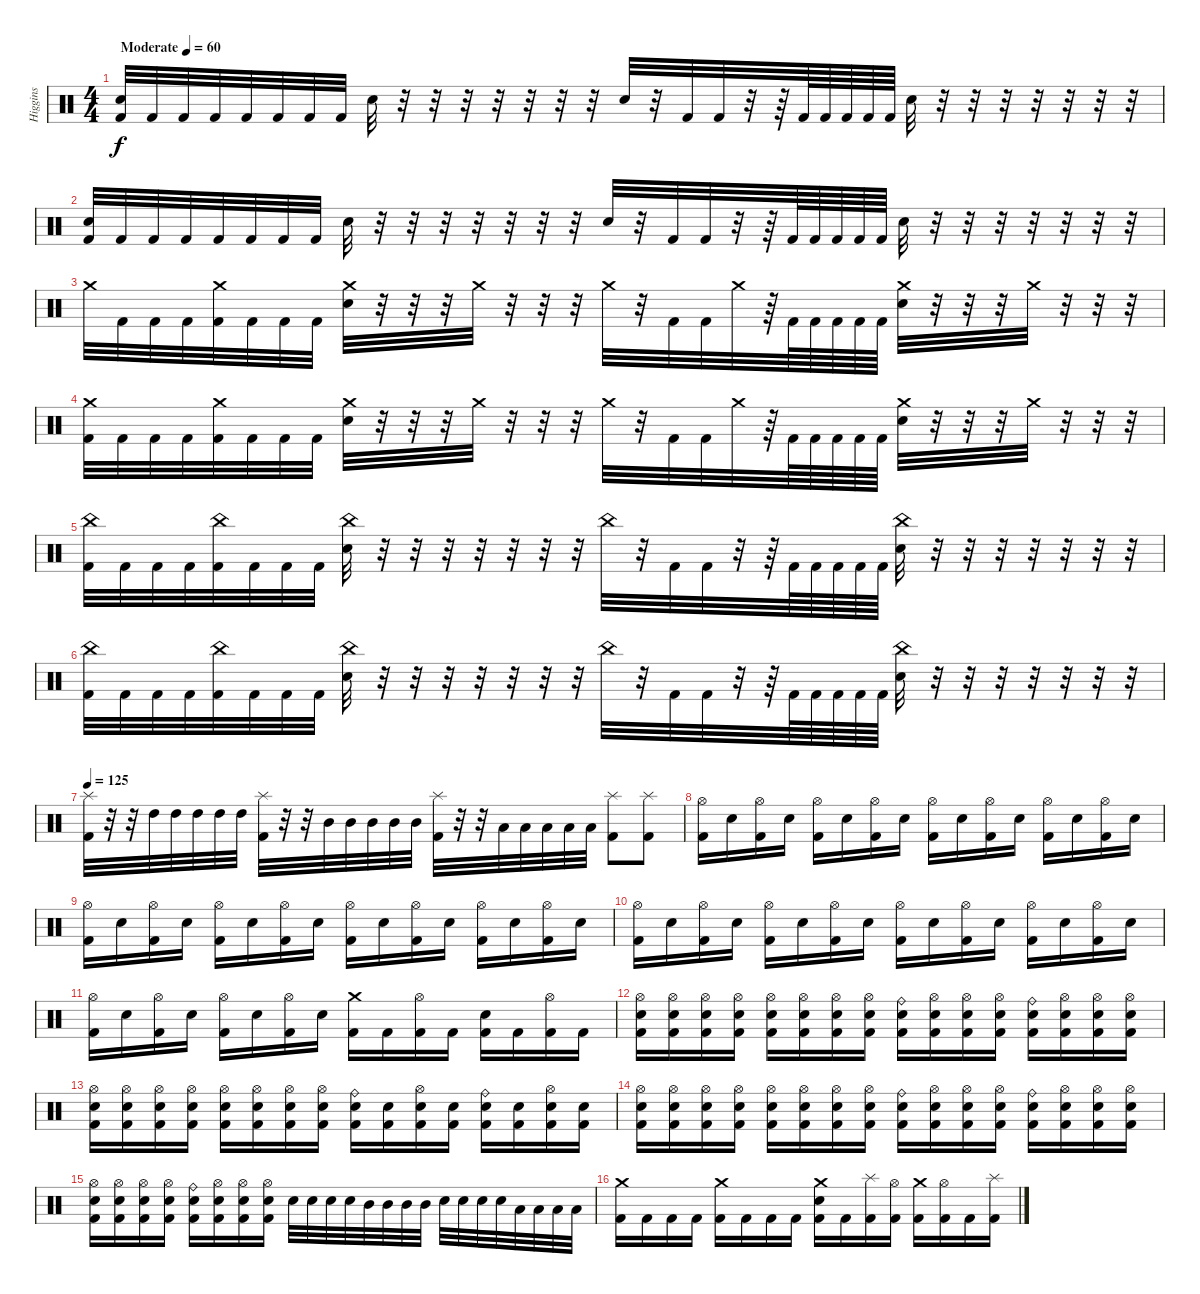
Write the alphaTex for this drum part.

\track ("Higgins" "Higgins") {instrument percussion}
\staff {score}
\articulation defaults
\ts (4 4)
\tempo (60 "Moderate")
\clef neutral
\ks c
("Snare (hit) 2" "Kick (hit) 2").32{dy f} "Kick (hit) 2".32 "Kick (hit) 2".32 "Kick (hit) 2".32 "Kick (hit) 2".32 "Kick (hit) 2".32 "Kick (hit) 2".32 "Kick (hit) 2".32 "Snare (hit) 2".32 r.32 r.32 r.32 r.32 r.32 r.32 r.32 "Snare (hit) 2".32 r.32 "Kick (hit) 2".32 "Kick (hit) 2".32 r.32 r.64 "Kick (hit) 2".64 "Kick (hit) 2".64 "Kick (hit) 2".64 "Kick (hit) 2".64 "Kick (hit) 2".64 "Snare (hit) 2".32 r.32 r.32 r.32 r.32 r.32 r.32 r.32 |
("Snare (hit) 2" "Kick (hit) 2").32 "Kick (hit) 2".32 "Kick (hit) 2".32 "Kick (hit) 2".32 "Kick (hit) 2".32 "Kick (hit) 2".32 "Kick (hit) 2".32 "Kick (hit) 2".32 "Snare (hit) 2".32 r.32 r.32 r.32 r.32 r.32 r.32 r.32 "Snare (hit) 2".32 r.32 "Kick (hit) 2".32 "Kick (hit) 2".32 r.32 r.64 "Kick (hit) 2".64 "Kick (hit) 2".64 "Kick (hit) 2".64 "Kick (hit) 2".64 "Kick (hit) 2".64 "Snare (hit) 2".32 r.32 r.32 r.32 r.32 r.32 r.32 r.32 |
"Crash medium (hit)".32 "Kick (hit) 2".32 "Kick (hit) 2".32 "Kick (hit) 2".32 ("Crash medium (hit)" "Kick (hit) 2").32 "Kick (hit) 2".32 "Kick (hit) 2".32 "Kick (hit) 2".32 ("Crash medium (hit)" "Snare (hit) 2").32 r.32 r.32 r.32 "Crash medium (hit)".32 r.32 r.32 r.32 "Crash medium (hit)".32 r.32 "Kick (hit) 2".32 "Kick (hit) 2".32 "Crash medium (hit)".32 r.64 "Kick (hit) 2".64 "Kick (hit) 2".64 "Kick (hit) 2".64 "Kick (hit) 2".64 "Kick (hit) 2".64 ("Crash medium (hit)" "Snare (hit) 2").32 r.32 r.32 r.32 "Crash medium (hit)".32 r.32 r.32 r.32 |
("Crash medium (hit)" "Kick (hit) 2").32 "Kick (hit) 2".32 "Kick (hit) 2".32 "Kick (hit) 2".32 ("Crash medium (hit)" "Kick (hit) 2").32 "Kick (hit) 2".32 "Kick (hit) 2".32 "Kick (hit) 2".32 ("Crash medium (hit)" "Snare (hit) 2").32 r.32 r.32 r.32 "Crash medium (hit)".32 r.32 r.32 r.32 "Crash medium (hit)".32 r.32 "Kick (hit) 2".32 "Kick (hit) 2".32 "Crash medium (hit)".32 r.64 "Kick (hit) 2".64 "Kick (hit) 2".64 "Kick (hit) 2".64 "Kick (hit) 2".64 "Kick (hit) 2".64 ("Crash medium (hit)" "Snare (hit) 2").32 r.32 r.32 r.32 "Crash medium (hit)".32 r.32 r.32 r.32 |
("China (hit)" "Kick (hit) 2").32 "Kick (hit) 2".32 "Kick (hit) 2".32 "Kick (hit) 2".32 ("China (hit)" "Kick (hit) 2").32 "Kick (hit) 2".32 "Kick (hit) 2".32 "Kick (hit) 2".32 ("China (hit)" "Snare (hit) 2").32 r.32 r.32 r.32 r.32 r.32 r.32 r.32 "China (hit)".32 r.32 "Kick (hit) 2".32 "Kick (hit) 2".32 r.32 r.64 "Kick (hit) 2".64 "Kick (hit) 2".64 "Kick (hit) 2".64 "Kick (hit) 2".64 "Kick (hit) 2".64 ("China (hit)" "Snare (hit) 2").32 r.32 r.32 r.32 r.32 r.32 r.32 r.32 |
("China (hit)" "Kick (hit) 2").32 "Kick (hit) 2".32 "Kick (hit) 2".32 "Kick (hit) 2".32 ("China (hit)" "Kick (hit) 2").32 "Kick (hit) 2".32 "Kick (hit) 2".32 "Kick (hit) 2".32 ("China (hit)" "Snare (hit) 2").32 r.32 r.32 r.32 r.32 r.32 r.32 r.32 "China (hit)".32 r.32 "Kick (hit) 2".32 "Kick (hit) 2".32 r.32 r.64 "Kick (hit) 2".64 "Kick (hit) 2".64 "Kick (hit) 2".64 "Kick (hit) 2".64 "Kick (hit) 2".64 ("China (hit)" "Snare (hit) 2").32 r.32 r.32 r.32 r.32 r.32 r.32 r.32 |
\tempo 125
("Splash (hit)" "Kick (hit) 2").32 r.32 r.32 "High Tom (hit)".32 "High Tom (hit)".32 "High Tom (hit)".32 "High Tom (hit)".32 "High Tom (hit)".32 ("Splash (hit)" "Kick (hit) 2").32 r.32 r.32 "Mid Tom (hit)".32 "Mid Tom (hit)".32 "Mid Tom (hit)".32 "Mid Tom (hit)".32 "Mid Tom (hit)".32 ("Splash (hit)" "Kick (hit) 2").32 r.32 r.32 "Low Tom (hit)".32 "Low Tom (hit)".32 "Low Tom (hit)".32 "Low Tom (hit)".32 "Low Tom (hit)".32 ("Splash (hit)" "Kick (hit) 2").8 ("Splash (hit)" "Kick (hit) 2").8 |
("Hi-Hat (open)" "Kick (hit) 2").16 "Snare (hit) 2".16 ("Hi-Hat (open)" "Kick (hit) 2").16 "Snare (hit) 2".16 ("Hi-Hat (open)" "Kick (hit) 2").16 "Snare (hit) 2".16 ("Hi-Hat (open)" "Kick (hit) 2").16 "Snare (hit) 2".16 ("Hi-Hat (open)" "Kick (hit) 2").16 "Snare (hit) 2".16 ("Hi-Hat (open)" "Kick (hit) 2").16 "Snare (hit) 2".16 ("Hi-Hat (open)" "Kick (hit) 2").16 "Snare (hit) 2".16 ("Hi-Hat (open)" "Kick (hit) 2").16 "Snare (hit) 2".16 |
("Hi-Hat (open)" "Kick (hit) 2").16 "Snare (hit) 2".16 ("Hi-Hat (open)" "Kick (hit) 2").16 "Snare (hit) 2".16 ("Hi-Hat (open)" "Kick (hit) 2").16 "Snare (hit) 2".16 ("Hi-Hat (open)" "Kick (hit) 2").16 "Snare (hit) 2".16 ("Hi-Hat (open)" "Kick (hit) 2").16 "Snare (hit) 2".16 ("Hi-Hat (open)" "Kick (hit) 2").16 "Snare (hit) 2".16 ("Hi-Hat (open)" "Kick (hit) 2").16 "Snare (hit) 2".16 ("Hi-Hat (open)" "Kick (hit) 2").16 "Snare (hit) 2".16 |
("Hi-Hat (open)" "Kick (hit) 2").16 "Snare (hit) 2".16 ("Hi-Hat (open)" "Kick (hit) 2").16 "Snare (hit) 2".16 ("Hi-Hat (open)" "Kick (hit) 2").16 "Snare (hit) 2".16 ("Hi-Hat (open)" "Kick (hit) 2").16 "Snare (hit) 2".16 ("Hi-Hat (open)" "Kick (hit) 2").16 "Snare (hit) 2".16 ("Hi-Hat (open)" "Kick (hit) 2").16 "Snare (hit) 2".16 ("Hi-Hat (open)" "Kick (hit) 2").16 "Snare (hit) 2".16 ("Hi-Hat (open)" "Kick (hit) 2").16 "Snare (hit) 2".16 |
("Hi-Hat (open)" "Kick (hit) 2").16 "Snare (hit) 2".16 ("Hi-Hat (open)" "Kick (hit) 2").16 "Snare (hit) 2".16 ("Hi-Hat (open)" "Kick (hit) 2").16 "Snare (hit) 2".16 ("Hi-Hat (open)" "Kick (hit) 2").16 "Snare (hit) 2".16 ("Crash medium (hit)" "Kick (hit) 2").16 "Kick (hit) 2".16 ("Hi-Hat (open)" "Kick (hit) 2").16 "Kick (hit) 2".16 ("Snare (hit) 2" "Kick (hit) 2").16 "Kick (hit) 2".16 ("Hi-Hat (open)" "Kick (hit) 2").16 "Kick (hit) 2".16 |
("Hi-Hat (open)" "Snare (hit) 2" "Kick (hit) 2").16 ("Hi-Hat (open)" "Snare (hit) 2" "Kick (hit) 2").16 ("Hi-Hat (open)" "Snare (hit) 2" "Kick (hit) 2").16 ("Hi-Hat (open)" "Snare (hit) 2" "Kick (hit) 2").16 ("Hi-Hat (open)" "Snare (hit) 2" "Kick (hit) 2").16 ("Hi-Hat (open)" "Snare (hit) 2" "Kick (hit) 2").16 ("Hi-Hat (open)" "Snare (hit) 2" "Kick (hit) 2").16 ("Hi-Hat (open)" "Snare (hit) 2" "Kick (hit) 2").16 ("Ride (bell)" "Snare (hit) 2" "Kick (hit) 2").16 ("Hi-Hat (open)" "Snare (hit) 2" "Kick (hit) 2").16 ("Hi-Hat (open)" "Snare (hit) 2" "Kick (hit) 2").16 ("Hi-Hat (open)" "Snare (hit) 2" "Kick (hit) 2").16 ("Ride (bell)" "Snare (hit) 2" "Kick (hit) 2").16 ("Hi-Hat (open)" "Snare (hit) 2" "Kick (hit) 2").16 ("Hi-Hat (open)" "Snare (hit) 2" "Kick (hit) 2").16 ("Hi-Hat (open)" "Snare (hit) 2" "Kick (hit) 2").16 |
("Hi-Hat (open)" "Snare (hit) 2" "Kick (hit) 2").16 ("Hi-Hat (open)" "Snare (hit) 2" "Kick (hit) 2").16 ("Hi-Hat (open)" "Snare (hit) 2" "Kick (hit) 2").16 ("Hi-Hat (open)" "Snare (hit) 2" "Kick (hit) 2").16 ("Hi-Hat (open)" "Snare (hit) 2" "Kick (hit) 2").16 ("Hi-Hat (open)" "Snare (hit) 2" "Kick (hit) 2").16 ("Hi-Hat (open)" "Snare (hit) 2" "Kick (hit) 2").16 ("Hi-Hat (open)" "Snare (hit) 2" "Kick (hit) 2").16 ("Ride (bell)" "Snare (hit) 2" "Kick (hit) 2").16 ("Snare (hit) 2" "Kick (hit) 2").16 ("Hi-Hat (open)" "Snare (hit) 2" "Kick (hit) 2").16 ("Snare (hit) 2" "Kick (hit) 2").16 ("Ride (bell)" "Snare (hit) 2" "Kick (hit) 2").16 ("Snare (hit) 2" "Kick (hit) 2").16 ("Hi-Hat (open)" "Snare (hit) 2" "Kick (hit) 2").16 ("Snare (hit) 2" "Kick (hit) 2").16 |
("Hi-Hat (open)" "Snare (hit) 2" "Kick (hit) 2").16 ("Hi-Hat (open)" "Snare (hit) 2" "Kick (hit) 2").16 ("Hi-Hat (open)" "Snare (hit) 2" "Kick (hit) 2").16 ("Hi-Hat (open)" "Snare (hit) 2" "Kick (hit) 2").16 ("Hi-Hat (open)" "Snare (hit) 2" "Kick (hit) 2").16 ("Hi-Hat (open)" "Snare (hit) 2" "Kick (hit) 2").16 ("Hi-Hat (open)" "Snare (hit) 2" "Kick (hit) 2").16 ("Hi-Hat (open)" "Snare (hit) 2" "Kick (hit) 2").16 ("Ride (bell)" "Snare (hit) 2" "Kick (hit) 2").16 ("Hi-Hat (open)" "Snare (hit) 2" "Kick (hit) 2").16 ("Hi-Hat (open)" "Snare (hit) 2" "Kick (hit) 2").16 ("Hi-Hat (open)" "Snare (hit) 2" "Kick (hit) 2").16 ("Ride (bell)" "Snare (hit) 2" "Kick (hit) 2").16 ("Hi-Hat (open)" "Snare (hit) 2" "Kick (hit) 2").16 ("Hi-Hat (open)" "Snare (hit) 2" "Kick (hit) 2").16 ("Hi-Hat (open)" "Snare (hit) 2" "Kick (hit) 2").16 |
("Hi-Hat (open)" "Snare (hit) 2" "Kick (hit) 2").16 ("Hi-Hat (open)" "Snare (hit) 2" "Kick (hit) 2").16 ("Hi-Hat (open)" "Snare (hit) 2" "Kick (hit) 2").16 ("Hi-Hat (open)" "Snare (hit) 2" "Kick (hit) 2").16 ("Ride (bell)" "Snare (hit) 2" "Kick (hit) 2").16 ("Hi-Hat (open)" "Snare (hit) 2" "Kick (hit) 2").16 ("Hi-Hat (open)" "Snare (hit) 2" "Kick (hit) 2").16 ("Hi-Hat (open)" "Snare (hit) 2" "Kick (hit) 2").16 "Snare (hit) 2".32 "Snare (hit) 2".32 "Snare (hit) 2".32 "Snare (hit) 2".32 "Mid Tom (hit)".32 "Mid Tom (hit)".32 "Mid Tom (hit)".32 "Mid Tom (hit)".32 "Snare (hit) 2".32 "Snare (hit) 2".32 "Snare (hit) 2".32 "Snare (hit) 2".32 "Low Tom (hit)".32 "Low Tom (hit)".32 "Low Tom (hit)".32 "Low Tom (hit)".32 |
("Crash medium (hit)" "Kick (hit) 2").16 "Kick (hit) 2".16 "Kick (hit) 2".16 "Kick (hit) 2".16 ("Crash medium (hit)" "Kick (hit) 2").16 "Kick (hit) 2".16 "Kick (hit) 2".16 "Kick (hit) 2".16 ("Crash medium (hit)" "Snare (hit) 2" "Kick (hit) 2").16 "Kick (hit) 2".16 ("Splash (hit)" "Kick (hit) 2").16 ("Hi-Hat (open)" "Kick (hit) 2").16 ("Crash medium (hit)" "Kick (hit) 2").16 ("Hi-Hat (open)" "Kick (hit) 2").16 "Kick (hit) 2".16 ("Splash (hit)" "Kick (hit) 2").16
